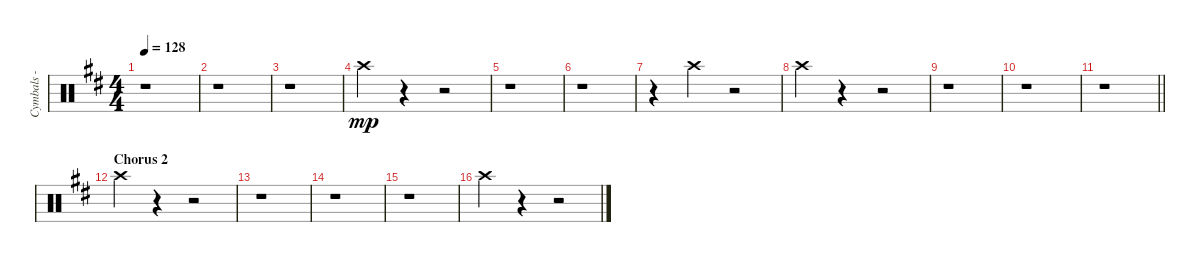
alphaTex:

\track ("Cymbals - crash" "Cymbals - ") {instrument percussion}
\staff {score}
\articulation defaults
\ts (4 4)
\tempo 128
\clef neutral
\ks bminor
r.1{dy f} |
r.1 |
r.1 |
"Crash high (hit)".4{dy mp} r.4 r.2 |
r.1 |
r.1 |
r.4 "Crash high (hit)".4 r.2 |
"Crash high (hit)".4 r.4 r.2 |
r.1 |
r.1 |
\barLineRight lightlight
r.1 |
\section ("" "Chorus 2")
"Crash high (hit)".4 r.4 r.2 |
r.1 |
r.1 |
r.1 |
"Crash high (hit)".4 r.4 r.2
